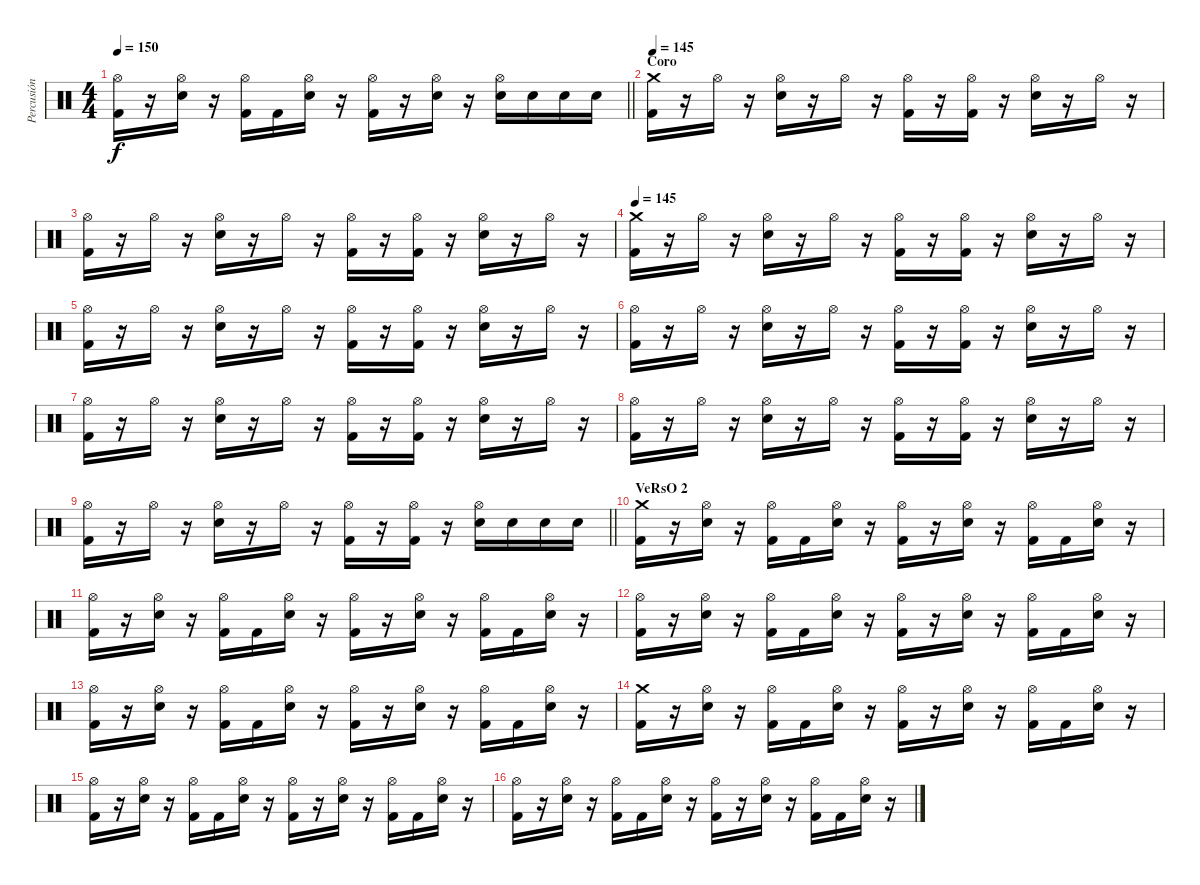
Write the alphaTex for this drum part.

\track ("Percusión" "Percusión") {instrument percussion}
\staff {score}
\articulation defaults
\ts (4 4)
\tempo 150
\clef neutral
\barLineRight lightlight
\ks c
("Hi-Hat (open)" "Kick (hit) 2").16{dy f} r.16 ("Hi-Hat (open)" "Electric Snare (hit)").16 r.16 ("Hi-Hat (open)" "Kick (hit) 2").16 "Kick (hit) 2".16 ("Hi-Hat (open)" "Electric Snare (hit)").16 r.16 ("Hi-Hat (open)" "Kick (hit) 2").16 r.16 ("Hi-Hat (open)" "Electric Snare (hit)").16 r.16 ("Hi-Hat (open)" "Electric Snare (hit)").16 "Electric Snare (hit)".16 "Electric Snare (hit)".16 "Electric Snare (hit)".16 |
\section ("" "Coro")
\tempo 145
("Crash medium (hit)" "Kick (hit) 2").16 r.16 "Hi-Hat (open)".16 r.16 ("Hi-Hat (open)" "Electric Snare (hit)").16 r.16 "Hi-Hat (open)".16 r.16 ("Hi-Hat (open)" "Kick (hit) 2").16 r.16 ("Hi-Hat (open)" "Kick (hit) 2").16 r.16 ("Hi-Hat (open)" "Electric Snare (hit)").16 r.16 "Hi-Hat (open)".16 r.16 |
("Hi-Hat (open)" "Kick (hit) 2").16 r.16 "Hi-Hat (open)".16 r.16 ("Hi-Hat (open)" "Electric Snare (hit)").16 r.16 "Hi-Hat (open)".16 r.16 ("Hi-Hat (open)" "Kick (hit) 2").16 r.16 ("Hi-Hat (open)" "Kick (hit) 2").16 r.16 ("Hi-Hat (open)" "Electric Snare (hit)").16 r.16 "Hi-Hat (open)".16 r.16 |
\tempo 145
("Crash medium (hit)" "Kick (hit) 2").16 r.16 "Hi-Hat (open)".16 r.16 ("Hi-Hat (open)" "Electric Snare (hit)").16 r.16 "Hi-Hat (open)".16 r.16 ("Hi-Hat (open)" "Kick (hit) 2").16 r.16 ("Hi-Hat (open)" "Kick (hit) 2").16 r.16 ("Hi-Hat (open)" "Electric Snare (hit)").16 r.16 "Hi-Hat (open)".16 r.16 |
("Hi-Hat (open)" "Kick (hit) 2").16 r.16 "Hi-Hat (open)".16 r.16 ("Hi-Hat (open)" "Electric Snare (hit)").16 r.16 "Hi-Hat (open)".16 r.16 ("Hi-Hat (open)" "Kick (hit) 2").16 r.16 ("Hi-Hat (open)" "Kick (hit) 2").16 r.16 ("Hi-Hat (open)" "Electric Snare (hit)").16 r.16 "Hi-Hat (open)".16 r.16 |
("Hi-Hat (open)" "Kick (hit) 2").16 r.16 "Hi-Hat (open)".16 r.16 ("Hi-Hat (open)" "Electric Snare (hit)").16 r.16 "Hi-Hat (open)".16 r.16 ("Hi-Hat (open)" "Kick (hit) 2").16 r.16 ("Hi-Hat (open)" "Kick (hit) 2").16 r.16 ("Hi-Hat (open)" "Electric Snare (hit)").16 r.16 "Hi-Hat (open)".16 r.16 |
("Hi-Hat (open)" "Kick (hit) 2").16 r.16 "Hi-Hat (open)".16 r.16 ("Hi-Hat (open)" "Electric Snare (hit)").16 r.16 "Hi-Hat (open)".16 r.16 ("Hi-Hat (open)" "Kick (hit) 2").16 r.16 ("Hi-Hat (open)" "Kick (hit) 2").16 r.16 ("Hi-Hat (open)" "Electric Snare (hit)").16 r.16 "Hi-Hat (open)".16 r.16 |
("Hi-Hat (open)" "Kick (hit) 2").16 r.16 "Hi-Hat (open)".16 r.16 ("Hi-Hat (open)" "Electric Snare (hit)").16 r.16 "Hi-Hat (open)".16 r.16 ("Hi-Hat (open)" "Kick (hit) 2").16 r.16 ("Hi-Hat (open)" "Kick (hit) 2").16 r.16 ("Hi-Hat (open)" "Electric Snare (hit)").16 r.16 "Hi-Hat (open)".16 r.16 |
\barLineRight lightlight
("Hi-Hat (open)" "Kick (hit) 2").16 r.16 "Hi-Hat (open)".16 r.16 ("Hi-Hat (open)" "Electric Snare (hit)").16 r.16 "Hi-Hat (open)".16 r.16 ("Hi-Hat (open)" "Kick (hit) 2").16 r.16 ("Hi-Hat (open)" "Kick (hit) 2").16 r.16 ("Hi-Hat (open)" "Electric Snare (hit)").16 "Electric Snare (hit)".16 "Electric Snare (hit)".16 "Electric Snare (hit)".16 |
\section ("" "VeRsO 2")
("Crash medium (hit)" "Kick (hit) 2").16 r.16 ("Hi-Hat (open)" "Electric Snare (hit)").16 r.16 ("Hi-Hat (open)" "Kick (hit) 2").16 "Kick (hit) 2".16 ("Hi-Hat (open)" "Electric Snare (hit)").16 r.16 ("Hi-Hat (open)" "Kick (hit) 2").16 r.16 ("Hi-Hat (open)" "Electric Snare (hit)").16 r.16 ("Hi-Hat (open)" "Kick (hit) 2").16 "Kick (hit) 2".16 ("Hi-Hat (open)" "Electric Snare (hit)").16 r.16 |
("Hi-Hat (open)" "Kick (hit) 2").16 r.16 ("Hi-Hat (open)" "Electric Snare (hit)").16 r.16 ("Hi-Hat (open)" "Kick (hit) 2").16 "Kick (hit) 2".16 ("Hi-Hat (open)" "Electric Snare (hit)").16 r.16 ("Hi-Hat (open)" "Kick (hit) 2").16 r.16 ("Hi-Hat (open)" "Electric Snare (hit)").16 r.16 ("Hi-Hat (open)" "Kick (hit) 2").16 "Kick (hit) 2".16 ("Hi-Hat (open)" "Electric Snare (hit)").16 r.16 |
("Hi-Hat (open)" "Kick (hit) 2").16 r.16 ("Hi-Hat (open)" "Electric Snare (hit)").16 r.16 ("Hi-Hat (open)" "Kick (hit) 2").16 "Kick (hit) 2".16 ("Hi-Hat (open)" "Electric Snare (hit)").16 r.16 ("Hi-Hat (open)" "Kick (hit) 2").16 r.16 ("Hi-Hat (open)" "Electric Snare (hit)").16 r.16 ("Hi-Hat (open)" "Kick (hit) 2").16 "Kick (hit) 2".16 ("Hi-Hat (open)" "Electric Snare (hit)").16 r.16 |
("Hi-Hat (open)" "Kick (hit) 2").16 r.16 ("Hi-Hat (open)" "Electric Snare (hit)").16 r.16 ("Hi-Hat (open)" "Kick (hit) 2").16 "Kick (hit) 2".16 ("Hi-Hat (open)" "Electric Snare (hit)").16 r.16 ("Hi-Hat (open)" "Kick (hit) 2").16 r.16 ("Hi-Hat (open)" "Electric Snare (hit)").16 r.16 ("Hi-Hat (open)" "Kick (hit) 2").16 "Kick (hit) 2".16 ("Hi-Hat (open)" "Electric Snare (hit)").16 r.16 |
("Crash medium (hit)" "Kick (hit) 2").16 r.16 ("Hi-Hat (open)" "Electric Snare (hit)").16 r.16 ("Hi-Hat (open)" "Kick (hit) 2").16 "Kick (hit) 2".16 ("Hi-Hat (open)" "Electric Snare (hit)").16 r.16 ("Hi-Hat (open)" "Kick (hit) 2").16 r.16 ("Hi-Hat (open)" "Electric Snare (hit)").16 r.16 ("Hi-Hat (open)" "Kick (hit) 2").16 "Kick (hit) 2".16 ("Hi-Hat (open)" "Electric Snare (hit)").16 r.16 |
("Hi-Hat (open)" "Kick (hit) 2").16 r.16 ("Hi-Hat (open)" "Electric Snare (hit)").16 r.16 ("Hi-Hat (open)" "Kick (hit) 2").16 "Kick (hit) 2".16 ("Hi-Hat (open)" "Electric Snare (hit)").16 r.16 ("Hi-Hat (open)" "Kick (hit) 2").16 r.16 ("Hi-Hat (open)" "Electric Snare (hit)").16 r.16 ("Hi-Hat (open)" "Kick (hit) 2").16 "Kick (hit) 2".16 ("Hi-Hat (open)" "Electric Snare (hit)").16 r.16 |
("Hi-Hat (open)" "Kick (hit) 2").16 r.16 ("Hi-Hat (open)" "Electric Snare (hit)").16 r.16 ("Hi-Hat (open)" "Kick (hit) 2").16 "Kick (hit) 2".16 ("Hi-Hat (open)" "Electric Snare (hit)").16 r.16 ("Hi-Hat (open)" "Kick (hit) 2").16 r.16 ("Hi-Hat (open)" "Electric Snare (hit)").16 r.16 ("Hi-Hat (open)" "Kick (hit) 2").16 "Kick (hit) 2".16 ("Hi-Hat (open)" "Electric Snare (hit)").16 r.16
